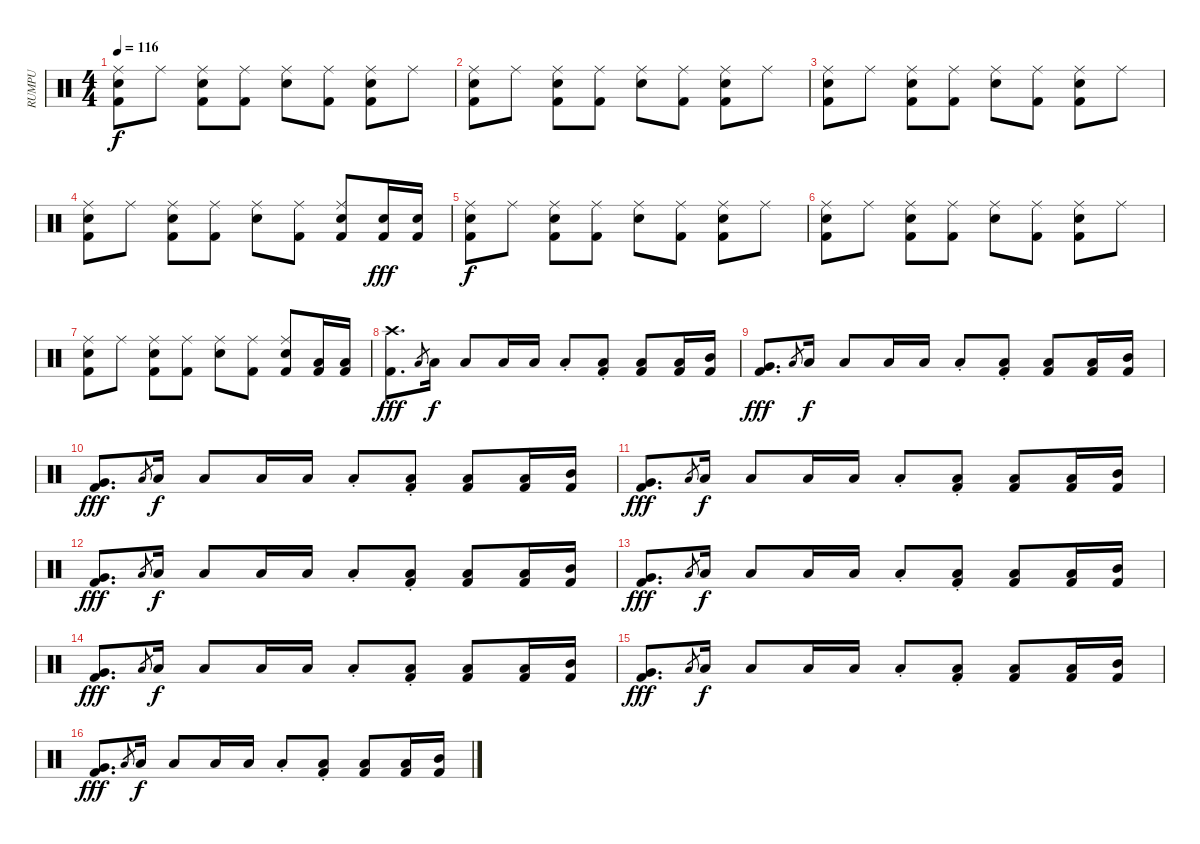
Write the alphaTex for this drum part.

\track ("RUMPU" "RUMPU") {instrument percussion}
\staff {score}
\articulation defaults
\ts (4 4)
\tempo 116
\clef neutral
\ks c
("Electric Snare (hit)" "Ride (middle)" "Kick (hit) 2").8{dy f} "Ride (middle)".8 ("Electric Snare (hit)" "Ride (middle)" "Kick (hit) 2").8 ("Ride (middle)" "Kick (hit) 2").8 ("Electric Snare (hit)" "Ride (middle)").8 ("Ride (middle)" "Kick (hit) 2").8 ("Electric Snare (hit)" "Ride (middle)" "Kick (hit) 2").8 "Ride (middle)".8 |
("Electric Snare (hit)" "Ride (middle)" "Kick (hit) 2").8 "Ride (middle)".8 ("Electric Snare (hit)" "Ride (middle)" "Kick (hit) 2").8 ("Ride (middle)" "Kick (hit) 2").8 ("Electric Snare (hit)" "Ride (middle)").8 ("Ride (middle)" "Kick (hit) 2").8 ("Electric Snare (hit)" "Ride (middle)" "Kick (hit) 2").8 "Ride (middle)".8 |
("Electric Snare (hit)" "Ride (middle)" "Kick (hit) 2").8 "Ride (middle)".8 ("Electric Snare (hit)" "Ride (middle)" "Kick (hit) 2").8 ("Ride (middle)" "Kick (hit) 2").8 ("Electric Snare (hit)" "Ride (middle)").8 ("Ride (middle)" "Kick (hit) 2").8 ("Electric Snare (hit)" "Ride (middle)" "Kick (hit) 2").8 "Ride (middle)".8 |
("Electric Snare (hit)" "Ride (middle)" "Kick (hit) 2").8 "Ride (middle)".8 ("Electric Snare (hit)" "Ride (middle)" "Kick (hit) 2").8 ("Ride (middle)" "Kick (hit) 2").8 ("Electric Snare (hit)" "Ride (middle)").8 ("Ride (middle)" "Kick (hit) 2").8 ("Electric Snare (hit)" "Ride (middle)" "Kick (hit) 2").8 ("Electric Snare (hit)" "Kick (hit) 2").16{dy fff} ("Electric Snare (hit)" "Kick (hit) 2").16 |
("Electric Snare (hit)" "Ride (middle)" "Kick (hit) 2").8{dy f} "Ride (middle)".8 ("Electric Snare (hit)" "Ride (middle)" "Kick (hit) 2").8 ("Ride (middle)" "Kick (hit) 2").8 ("Electric Snare (hit)" "Ride (middle)").8 ("Ride (middle)" "Kick (hit) 2").8 ("Electric Snare (hit)" "Ride (middle)" "Kick (hit) 2").8 "Ride (middle)".8 |
("Electric Snare (hit)" "Ride (middle)" "Kick (hit) 2").8 "Ride (middle)".8 ("Electric Snare (hit)" "Ride (middle)" "Kick (hit) 2").8 ("Ride (middle)" "Kick (hit) 2").8 ("Electric Snare (hit)" "Ride (middle)").8 ("Ride (middle)" "Kick (hit) 2").8 ("Electric Snare (hit)" "Ride (middle)" "Kick (hit) 2").8 "Ride (middle)".8 |
("Electric Snare (hit)" "Ride (middle)" "Kick (hit) 2").8 "Ride (middle)".8 ("Electric Snare (hit)" "Ride (middle)" "Kick (hit) 2").8 ("Ride (middle)" "Kick (hit) 2").8 ("Electric Snare (hit)" "Ride (middle)").8 ("Ride (middle)" "Kick (hit) 2").8 ("Electric Snare (hit)" "Ride (middle)" "Kick (hit) 2").8 ("Low Floor Tom (hit)" "Kick (hit) 2").16 ("Low Floor Tom (hit)" "Kick (hit) 2").16 |
("Crash high (hit)" "Kick (hit) 2").8{d dy fff} "Low Floor Tom (hit)".8{gr} "Low Floor Tom (hit)".16{dy f} "Low Floor Tom (hit)".8 "Low Floor Tom (hit)".16 "Low Floor Tom (hit)".16 "Low Floor Tom (hit)"{st}.8 ("Low Floor Tom (hit)"{st} "Kick (hit) 2").8 ("Low Floor Tom (hit)" "Kick (hit) 2").8 ("Low Tom (hit)" "Kick (hit) 2").16 ("Mid Tom (hit)" "Kick (hit) 2").16 |
("Very Low Tom (hit)" "Kick (hit) 2").8{d dy fff} "Low Floor Tom (hit)".8{gr} "Low Floor Tom (hit)".16{dy f} "Low Floor Tom (hit)".8 "Low Floor Tom (hit)".16 "Low Floor Tom (hit)".16 "Low Floor Tom (hit)"{st}.8 ("Low Floor Tom (hit)"{st} "Kick (hit) 2").8 ("Low Floor Tom (hit)" "Kick (hit) 2").8 ("Low Tom (hit)" "Kick (hit) 2").16 ("Mid Tom (hit)" "Kick (hit) 2").16 |
("Very Low Tom (hit)" "Kick (hit) 2").8{d dy fff} "Low Floor Tom (hit)".8{gr} "Low Floor Tom (hit)".16{dy f} "Low Floor Tom (hit)".8 "Low Floor Tom (hit)".16 "Low Floor Tom (hit)".16 "Low Floor Tom (hit)"{st}.8 ("Low Floor Tom (hit)"{st} "Kick (hit) 2").8 ("Low Floor Tom (hit)" "Kick (hit) 2").8 ("Low Tom (hit)" "Kick (hit) 2").16 ("Mid Tom (hit)" "Kick (hit) 2").16 |
("Very Low Tom (hit)" "Kick (hit) 2").8{d dy fff} "Low Floor Tom (hit)".8{gr} "Low Floor Tom (hit)".16{dy f} "Low Floor Tom (hit)".8 "Low Floor Tom (hit)".16 "Low Floor Tom (hit)".16 "Low Floor Tom (hit)"{st}.8 ("Low Floor Tom (hit)"{st} "Kick (hit) 2").8 ("Low Floor Tom (hit)" "Kick (hit) 2").8 ("Low Tom (hit)" "Kick (hit) 2").16 ("Mid Tom (hit)" "Kick (hit) 2").16 |
("Very Low Tom (hit)" "Kick (hit) 2").8{d dy fff} "Low Floor Tom (hit)".8{gr} "Low Floor Tom (hit)".16{dy f} "Low Floor Tom (hit)".8 "Low Floor Tom (hit)".16 "Low Floor Tom (hit)".16 "Low Floor Tom (hit)"{st}.8 ("Low Floor Tom (hit)"{st} "Kick (hit) 2").8 ("Low Floor Tom (hit)" "Kick (hit) 2").8 ("Low Tom (hit)" "Kick (hit) 2").16 ("Mid Tom (hit)" "Kick (hit) 2").16 |
("Very Low Tom (hit)" "Kick (hit) 2").8{d dy fff} "Low Floor Tom (hit)".8{gr} "Low Floor Tom (hit)".16{dy f} "Low Floor Tom (hit)".8 "Low Floor Tom (hit)".16 "Low Floor Tom (hit)".16 "Low Floor Tom (hit)"{st}.8 ("Low Floor Tom (hit)"{st} "Kick (hit) 2").8 ("Low Floor Tom (hit)" "Kick (hit) 2").8 ("Low Tom (hit)" "Kick (hit) 2").16 ("Mid Tom (hit)" "Kick (hit) 2").16 |
("Very Low Tom (hit)" "Kick (hit) 2").8{d dy fff} "Low Floor Tom (hit)".8{gr} "Low Floor Tom (hit)".16{dy f} "Low Floor Tom (hit)".8 "Low Floor Tom (hit)".16 "Low Floor Tom (hit)".16 "Low Floor Tom (hit)"{st}.8 ("Low Floor Tom (hit)"{st} "Kick (hit) 2").8 ("Low Floor Tom (hit)" "Kick (hit) 2").8 ("Low Tom (hit)" "Kick (hit) 2").16 ("Mid Tom (hit)" "Kick (hit) 2").16 |
("Very Low Tom (hit)" "Kick (hit) 2").8{d dy fff} "Low Floor Tom (hit)".8{gr} "Low Floor Tom (hit)".16{dy f} "Low Floor Tom (hit)".8 "Low Floor Tom (hit)".16 "Low Floor Tom (hit)".16 "Low Floor Tom (hit)"{st}.8 ("Low Floor Tom (hit)"{st} "Kick (hit) 2").8 ("Low Floor Tom (hit)" "Kick (hit) 2").8 ("Low Tom (hit)" "Kick (hit) 2").16 ("Mid Tom (hit)" "Kick (hit) 2").16 |
("Very Low Tom (hit)" "Kick (hit) 2").8{d dy fff} "Low Floor Tom (hit)".8{gr} "Low Floor Tom (hit)".16{dy f} "Low Floor Tom (hit)".8 "Low Floor Tom (hit)".16 "Low Floor Tom (hit)".16 "Low Floor Tom (hit)"{st}.8 ("Low Floor Tom (hit)"{st} "Kick (hit) 2").8 ("Low Floor Tom (hit)" "Kick (hit) 2").8 ("Low Tom (hit)" "Kick (hit) 2").16 ("Mid Tom (hit)" "Kick (hit) 2").16
